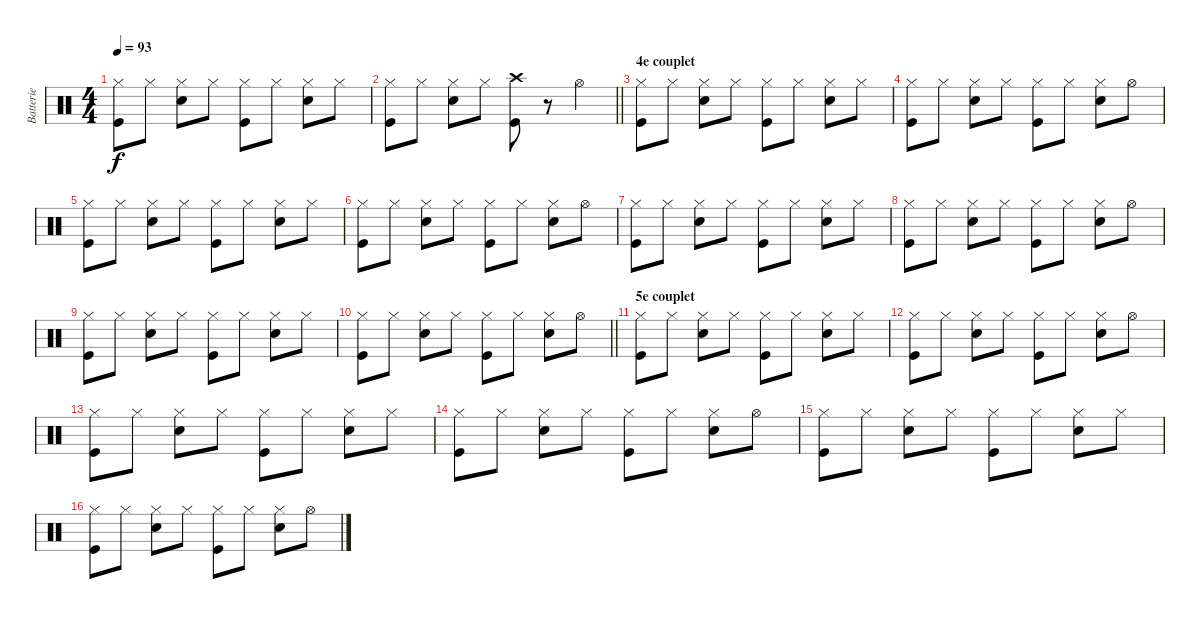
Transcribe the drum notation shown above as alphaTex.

\track ("Batterie" "Batterie") {instrument percussion}
\staff {score}
\articulation defaults
\ts (4 4)
\tempo 93
\clef neutral
\ks c
("Hi-Hat (closed)" "Kick (hit)").8{dy f} "Hi-Hat (closed)".8 ("Hi-Hat (closed)" "Snare (hit) 2").8 "Hi-Hat (closed)".8 ("Hi-Hat (closed)" "Kick (hit)").8 "Hi-Hat (closed)".8 ("Hi-Hat (closed)" "Snare (hit) 2").8 "Hi-Hat (closed)".8 |
\barLineRight lightlight
("Hi-Hat (closed)" "Kick (hit)").8 "Hi-Hat (closed)".8 ("Hi-Hat (closed)" "Snare (hit) 2").8 "Hi-Hat (closed)".8 ("Crash high (hit)" "Kick (hit)").8 r.8 "Hi-Hat (open)".4 |
\section ("" "4e couplet")
("Hi-Hat (closed)" "Kick (hit)").8 "Hi-Hat (closed)".8 ("Hi-Hat (closed)" "Snare (hit) 2").8 "Hi-Hat (closed)".8 ("Hi-Hat (closed)" "Kick (hit)").8 "Hi-Hat (closed)".8 ("Hi-Hat (closed)" "Snare (hit) 2").8 "Hi-Hat (closed)".8 |
("Hi-Hat (closed)" "Kick (hit)").8 "Hi-Hat (closed)".8 ("Hi-Hat (closed)" "Snare (hit) 2").8 "Hi-Hat (closed)".8 ("Hi-Hat (closed)" "Kick (hit)").8 "Hi-Hat (closed)".8 ("Hi-Hat (closed)" "Snare (hit) 2").8 "Hi-Hat (open)".8 |
("Hi-Hat (closed)" "Kick (hit)").8 "Hi-Hat (closed)".8 ("Hi-Hat (closed)" "Snare (hit) 2").8 "Hi-Hat (closed)".8 ("Hi-Hat (closed)" "Kick (hit)").8 "Hi-Hat (closed)".8 ("Hi-Hat (closed)" "Snare (hit) 2").8 "Hi-Hat (closed)".8 |
("Hi-Hat (closed)" "Kick (hit)").8 "Hi-Hat (closed)".8 ("Hi-Hat (closed)" "Snare (hit) 2").8 "Hi-Hat (closed)".8 ("Hi-Hat (closed)" "Kick (hit)").8 "Hi-Hat (closed)".8 ("Hi-Hat (closed)" "Snare (hit) 2").8 "Hi-Hat (open)".8 |
("Hi-Hat (closed)" "Kick (hit)").8 "Hi-Hat (closed)".8 ("Hi-Hat (closed)" "Snare (hit) 2").8 "Hi-Hat (closed)".8 ("Hi-Hat (closed)" "Kick (hit)").8 "Hi-Hat (closed)".8 ("Hi-Hat (closed)" "Snare (hit) 2").8 "Hi-Hat (closed)".8 |
("Hi-Hat (closed)" "Kick (hit)").8 "Hi-Hat (closed)".8 ("Hi-Hat (closed)" "Snare (hit) 2").8 "Hi-Hat (closed)".8 ("Hi-Hat (closed)" "Kick (hit)").8 "Hi-Hat (closed)".8 ("Hi-Hat (closed)" "Snare (hit) 2").8 "Hi-Hat (open)".8 |
("Hi-Hat (closed)" "Kick (hit)").8 "Hi-Hat (closed)".8 ("Hi-Hat (closed)" "Snare (hit) 2").8 "Hi-Hat (closed)".8 ("Hi-Hat (closed)" "Kick (hit)").8 "Hi-Hat (closed)".8 ("Hi-Hat (closed)" "Snare (hit) 2").8 "Hi-Hat (closed)".8 |
\barLineRight lightlight
("Hi-Hat (closed)" "Kick (hit)").8 "Hi-Hat (closed)".8 ("Hi-Hat (closed)" "Snare (hit) 2").8 "Hi-Hat (closed)".8 ("Hi-Hat (closed)" "Kick (hit)").8 "Hi-Hat (closed)".8 ("Hi-Hat (closed)" "Snare (hit) 2").8 "Hi-Hat (open)".8 |
\section ("" "5e couplet")
("Hi-Hat (closed)" "Kick (hit)").8 "Hi-Hat (closed)".8 ("Hi-Hat (closed)" "Snare (hit) 2").8 "Hi-Hat (closed)".8 ("Hi-Hat (closed)" "Kick (hit)").8 "Hi-Hat (closed)".8 ("Hi-Hat (closed)" "Snare (hit) 2").8 "Hi-Hat (closed)".8 |
("Hi-Hat (closed)" "Kick (hit)").8 "Hi-Hat (closed)".8 ("Hi-Hat (closed)" "Snare (hit) 2").8 "Hi-Hat (closed)".8 ("Hi-Hat (closed)" "Kick (hit)").8 "Hi-Hat (closed)".8 ("Hi-Hat (closed)" "Snare (hit) 2").8 "Hi-Hat (open)".8 |
("Hi-Hat (closed)" "Kick (hit)").8 "Hi-Hat (closed)".8 ("Hi-Hat (closed)" "Snare (hit) 2").8 "Hi-Hat (closed)".8 ("Hi-Hat (closed)" "Kick (hit)").8 "Hi-Hat (closed)".8 ("Hi-Hat (closed)" "Snare (hit) 2").8 "Hi-Hat (closed)".8 |
("Hi-Hat (closed)" "Kick (hit)").8 "Hi-Hat (closed)".8 ("Hi-Hat (closed)" "Snare (hit) 2").8 "Hi-Hat (closed)".8 ("Hi-Hat (closed)" "Kick (hit)").8 "Hi-Hat (closed)".8 ("Hi-Hat (closed)" "Snare (hit) 2").8 "Hi-Hat (open)".8 |
("Hi-Hat (closed)" "Kick (hit)").8 "Hi-Hat (closed)".8 ("Hi-Hat (closed)" "Snare (hit) 2").8 "Hi-Hat (closed)".8 ("Hi-Hat (closed)" "Kick (hit)").8 "Hi-Hat (closed)".8 ("Hi-Hat (closed)" "Snare (hit) 2").8 "Hi-Hat (closed)".8 |
("Hi-Hat (closed)" "Kick (hit)").8 "Hi-Hat (closed)".8 ("Hi-Hat (closed)" "Snare (hit) 2").8 "Hi-Hat (closed)".8 ("Hi-Hat (closed)" "Kick (hit)").8 "Hi-Hat (closed)".8 ("Hi-Hat (closed)" "Snare (hit) 2").8 "Hi-Hat (open)".8
